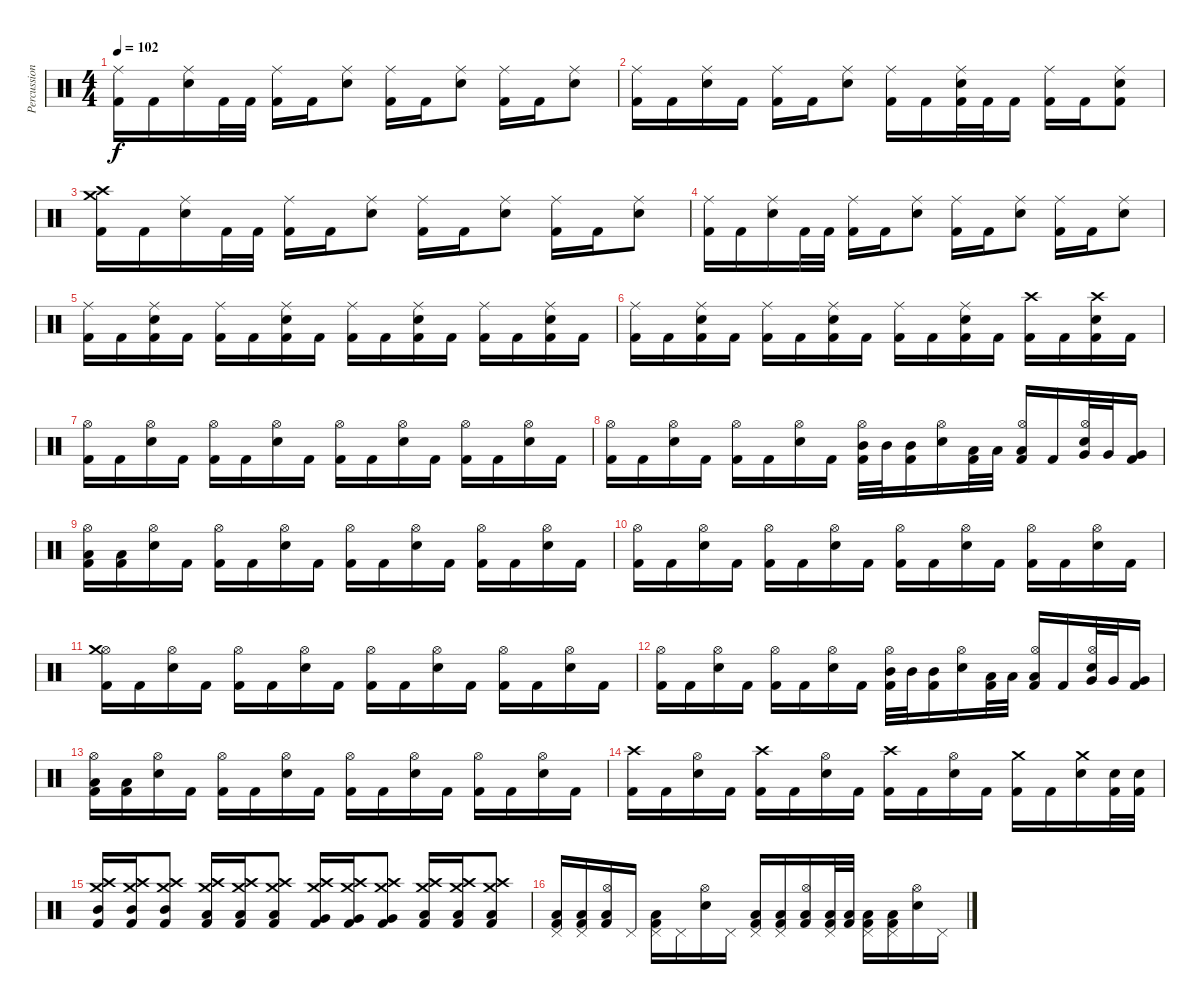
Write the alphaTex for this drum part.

\track ("Percussion" "Percussion") {instrument percussion}
\staff {score}
\articulation defaults
\ts (4 4)
\tempo 102
\clef neutral
\ks c
("Ride (middle)" "Kick (hit) 2").16{dy f} "Kick (hit) 2".16 ("Ride (middle)" "Electric Snare (hit)").16 "Kick (hit) 2".32 "Kick (hit) 2".32 ("Ride (middle)" "Kick (hit) 2").16 "Kick (hit) 2".16 ("Ride (middle)" "Electric Snare (hit)").8 ("Ride (middle)" "Kick (hit) 2").16 "Kick (hit) 2".16 ("Ride (middle)" "Electric Snare (hit)").8 ("Ride (middle)" "Kick (hit) 2").16 "Kick (hit) 2".16 ("Ride (middle)" "Electric Snare (hit)").8 |
("Ride (middle)" "Kick (hit) 2").16 "Kick (hit) 2".16 ("Ride (middle)" "Electric Snare (hit)").16 "Kick (hit) 2".16 ("Ride (middle)" "Kick (hit) 2").16 "Kick (hit) 2".16 ("Ride (middle)" "Electric Snare (hit)").8 ("Ride (middle)" "Kick (hit) 2").16 "Kick (hit) 2".16 ("Ride (middle)" "Electric Snare (hit)" "Kick (hit) 2").32 "Kick (hit) 2".32 "Kick (hit) 2".16 ("Ride (middle)" "Kick (hit) 2").16 "Kick (hit) 2".16 ("Ride (middle)" "Electric Snare (hit)" "Kick (hit) 2").8 |
("Crash medium (hit)" "Crash high (hit)" "Kick (hit) 2").16 "Kick (hit) 2".16 ("Ride (middle)" "Electric Snare (hit)").16 "Kick (hit) 2".32 "Kick (hit) 2".32 ("Ride (middle)" "Kick (hit) 2").16 "Kick (hit) 2".16 ("Ride (middle)" "Electric Snare (hit)").8 ("Ride (middle)" "Kick (hit) 2").16 "Kick (hit) 2".16 ("Ride (middle)" "Electric Snare (hit)").8 ("Ride (middle)" "Kick (hit) 2").16 "Kick (hit) 2".16 ("Ride (middle)" "Electric Snare (hit)").8 |
("Ride (middle)" "Kick (hit) 2").16 "Kick (hit) 2".16 ("Ride (middle)" "Electric Snare (hit)").16 "Kick (hit) 2".32 "Kick (hit) 2".32 ("Ride (middle)" "Kick (hit) 2").16 "Kick (hit) 2".16 ("Ride (middle)" "Electric Snare (hit)").8 ("Ride (middle)" "Kick (hit) 2").16 "Kick (hit) 2".16 ("Ride (middle)" "Electric Snare (hit)").8 ("Ride (middle)" "Kick (hit) 2").16 "Kick (hit) 2".16 ("Ride (middle)" "Electric Snare (hit)").8 |
("Ride (middle)" "Kick (hit) 2").16 "Kick (hit) 2".16 ("Ride (middle)" "Electric Snare (hit)" "Kick (hit) 2").16 "Kick (hit) 2".16 ("Ride (middle)" "Kick (hit) 2").16 "Kick (hit) 2".16 ("Ride (middle)" "Electric Snare (hit)" "Kick (hit) 2").16 "Kick (hit) 2".16 ("Ride (middle)" "Kick (hit) 2").16 "Kick (hit) 2".16 ("Ride (middle)" "Electric Snare (hit)" "Kick (hit) 2").16 "Kick (hit) 2".16 ("Ride (middle)" "Kick (hit) 2").16 "Kick (hit) 2".16 ("Ride (middle)" "Electric Snare (hit)" "Kick (hit) 2").16 "Kick (hit) 2".16 |
("Ride (middle)" "Kick (hit) 2").16 "Kick (hit) 2".16 ("Ride (middle)" "Electric Snare (hit)" "Kick (hit) 2").16 "Kick (hit) 2".16 ("Ride (middle)" "Kick (hit) 2").16 "Kick (hit) 2".16 ("Ride (middle)" "Electric Snare (hit)" "Kick (hit) 2").16 "Kick (hit) 2".16 ("Ride (middle)" "Kick (hit) 2").16 "Kick (hit) 2".16 ("Ride (middle)" "Electric Snare (hit)" "Kick (hit) 2").16 "Kick (hit) 2".16 ("Crash high (hit)" "Kick (hit) 2").16 "Kick (hit) 2".16 ("Crash high (hit)" "Electric Snare (hit)" "Kick (hit) 2").16 "Kick (hit) 2".16 |
("Hi-Hat (open)" "Kick (hit) 2").16 "Kick (hit) 2".16 ("Hi-Hat (open)" "Electric Snare (hit)").16 "Kick (hit) 2".16 ("Hi-Hat (open)" "Kick (hit) 2").16 "Kick (hit) 2".16 ("Hi-Hat (open)" "Electric Snare (hit)").16 "Kick (hit) 2".16 ("Hi-Hat (open)" "Kick (hit) 2").16 "Kick (hit) 2".16 ("Hi-Hat (open)" "Electric Snare (hit)").16 "Kick (hit) 2".16 ("Hi-Hat (open)" "Kick (hit) 2").16 "Kick (hit) 2".16 ("Hi-Hat (open)" "Electric Snare (hit)").16 "Kick (hit) 2".16 |
("Hi-Hat (open)" "Kick (hit) 2").16 "Kick (hit) 2".16 ("Hi-Hat (open)" "Electric Snare (hit)").16 "Kick (hit) 2".16 ("Hi-Hat (open)" "Kick (hit) 2").16 "Kick (hit) 2".16 ("Hi-Hat (open)" "Electric Snare (hit)").16 "Kick (hit) 2".16 ("Hi-Hat (open)" "Mid Tom (hit)" "Kick (hit) 2").32 "Mid Tom (hit)".32 ("Mid Tom (hit)" "Kick (hit) 2").16 ("Hi-Hat (open)" "Electric Snare (hit)").16 ("Low Tom (hit)" "Kick (hit) 2").32 "Low Tom (hit)".32 ("Hi-Hat (open)" "Low Tom (hit)" "Kick (hit) 2").16 "Kick (hit) 2".16 ("Hi-Hat (open)" "Very Low Tom (hit)" "Electric Snare (hit)").32 "Very Low Tom (hit)".32 ("Very Low Tom (hit)" "Kick (hit) 2").16 |
("Hi-Hat (open)" "Low Floor Tom (hit)" "Kick (hit) 2").16 ("Low Floor Tom (hit)" "Kick (hit) 2").16 ("Hi-Hat (open)" "Electric Snare (hit)").16 "Kick (hit) 2".16 ("Hi-Hat (open)" "Kick (hit) 2").16 "Kick (hit) 2".16 ("Hi-Hat (open)" "Electric Snare (hit)").16 "Kick (hit) 2".16 ("Hi-Hat (open)" "Kick (hit) 2").16 "Kick (hit) 2".16 ("Hi-Hat (open)" "Electric Snare (hit)").16 "Kick (hit) 2".16 ("Hi-Hat (open)" "Kick (hit) 2").16 "Kick (hit) 2".16 ("Hi-Hat (open)" "Electric Snare (hit)").16 "Kick (hit) 2".16 |
("Hi-Hat (open)" "Kick (hit) 2").16 "Kick (hit) 2".16 ("Hi-Hat (open)" "Electric Snare (hit)").16 "Kick (hit) 2".16 ("Hi-Hat (open)" "Kick (hit) 2").16 "Kick (hit) 2".16 ("Hi-Hat (open)" "Electric Snare (hit)").16 "Kick (hit) 2".16 ("Hi-Hat (open)" "Kick (hit) 2").16 "Kick (hit) 2".16 ("Hi-Hat (open)" "Electric Snare (hit)").16 "Kick (hit) 2".16 ("Hi-Hat (open)" "Kick (hit) 2").16 "Kick (hit) 2".16 ("Hi-Hat (open)" "Electric Snare (hit)").16 "Kick (hit) 2".16 |
("Hi-Hat (open)" "Crash medium (hit)" "Kick (hit) 2").16 "Kick (hit) 2".16 ("Hi-Hat (open)" "Electric Snare (hit)").16 "Kick (hit) 2".16 ("Hi-Hat (open)" "Kick (hit) 2").16 "Kick (hit) 2".16 ("Hi-Hat (open)" "Electric Snare (hit)").16 "Kick (hit) 2".16 ("Hi-Hat (open)" "Kick (hit) 2").16 "Kick (hit) 2".16 ("Hi-Hat (open)" "Electric Snare (hit)").16 "Kick (hit) 2".16 ("Hi-Hat (open)" "Kick (hit) 2").16 "Kick (hit) 2".16 ("Hi-Hat (open)" "Electric Snare (hit)").16 "Kick (hit) 2".16 |
("Hi-Hat (open)" "Kick (hit) 2").16 "Kick (hit) 2".16 ("Hi-Hat (open)" "Electric Snare (hit)").16 "Kick (hit) 2".16 ("Hi-Hat (open)" "Kick (hit) 2").16 "Kick (hit) 2".16 ("Hi-Hat (open)" "Electric Snare (hit)").16 "Kick (hit) 2".16 ("Hi-Hat (open)" "Mid Tom (hit)" "Kick (hit) 2").32 "Mid Tom (hit)".32 ("Mid Tom (hit)" "Kick (hit) 2").16 ("Hi-Hat (open)" "Electric Snare (hit)").16 ("Low Tom (hit)" "Kick (hit) 2").32 "Low Tom (hit)".32 ("Hi-Hat (open)" "Low Tom (hit)" "Kick (hit) 2").16 "Kick (hit) 2".16 ("Hi-Hat (open)" "Very Low Tom (hit)" "Electric Snare (hit)").32 "Very Low Tom (hit)".32 ("Very Low Tom (hit)" "Kick (hit) 2").16 |
("Hi-Hat (open)" "Low Floor Tom (hit)" "Kick (hit) 2").16 ("Low Floor Tom (hit)" "Kick (hit) 2").16 ("Hi-Hat (open)" "Electric Snare (hit)").16 "Kick (hit) 2".16 ("Hi-Hat (open)" "Kick (hit) 2").16 "Kick (hit) 2".16 ("Hi-Hat (open)" "Electric Snare (hit)").16 "Kick (hit) 2".16 ("Hi-Hat (open)" "Kick (hit) 2").16 "Kick (hit) 2".16 ("Hi-Hat (open)" "Electric Snare (hit)").16 "Kick (hit) 2".16 ("Hi-Hat (open)" "Kick (hit) 2").16 "Kick (hit) 2".16 ("Hi-Hat (open)" "Electric Snare (hit)").16 "Kick (hit) 2".16 |
("Crash high (hit)" "Kick (hit) 2").16 "Kick (hit) 2".16 ("Hi-Hat (open)" "Electric Snare (hit)").16 "Kick (hit) 2".16 ("Crash high (hit)" "Kick (hit) 2").16 "Kick (hit) 2".16 ("Hi-Hat (open)" "Electric Snare (hit)").16 "Kick (hit) 2".16 ("Crash high (hit)" "Kick (hit) 2").16 "Kick (hit) 2".16 ("Hi-Hat (open)" "Electric Snare (hit)").16 "Kick (hit) 2".16 ("Crash medium (hit)" "Kick (hit) 2").16 "Kick (hit) 2".16 ("Crash medium (hit)" "Electric Snare (hit)").16 ("Electric Snare (hit)" "Kick (hit) 2").32 ("Electric Snare (hit)" "Kick (hit) 2").32 |
("Crash high (hit)" "Crash medium (hit)" "Mid Tom (hit)" "Kick (hit) 2").16 ("Crash high (hit)" "Crash medium (hit)" "Mid Tom (hit)" "Kick (hit) 2").16 ("Crash high (hit)" "Crash medium (hit)" "Mid Tom (hit)" "Kick (hit) 2").8 ("Crash high (hit)" "Crash medium (hit)" "Low Tom (hit)" "Kick (hit) 2").16 ("Crash high (hit)" "Crash medium (hit)" "Low Tom (hit)" "Kick (hit) 2").16 ("Crash high (hit)" "Crash medium (hit)" "Low Tom (hit)" "Kick (hit) 2").8 ("Crash high (hit)" "Crash medium (hit)" "Very Low Tom (hit)" "Kick (hit) 2").16 ("Crash high (hit)" "Crash medium (hit)" "Very Low Tom (hit)" "Kick (hit) 2").16 ("Crash high (hit)" "Crash medium (hit)" "Very Low Tom (hit)" "Kick (hit) 2").8 ("Crash high (hit)" "Crash medium (hit)" "Low Floor Tom (hit)" "Kick (hit) 2").16 ("Crash high (hit)" "Crash medium (hit)" "Low Floor Tom (hit)" "Kick (hit) 2").16 ("Crash high (hit)" "Crash medium (hit)" "Low Floor Tom (hit)" "Kick (hit) 2").8 |
("Pedal Hi-Hat (hit)" "Low Floor Tom (hit)" "Kick (hit) 2").16 ("Pedal Hi-Hat (hit)" "Low Floor Tom (hit)" "Kick (hit) 2").16 ("Hi-Hat (open)" "Low Floor Tom (hit)" "Kick (hit) 2").16 "Pedal Hi-Hat (hit)".16 ("Pedal Hi-Hat (hit)" "Low Floor Tom (hit)" "Kick (hit) 2").16 "Pedal Hi-Hat (hit)".16 ("Hi-Hat (open)" "Electric Snare (hit)").16 "Pedal Hi-Hat (hit)".16 ("Pedal Hi-Hat (hit)" "Low Floor Tom (hit)" "Kick (hit) 2").16 ("Pedal Hi-Hat (hit)" "Low Floor Tom (hit)" "Kick (hit) 2").16 ("Hi-Hat (open)" "Low Floor Tom (hit)" "Kick (hit) 2").16 ("Pedal Hi-Hat (hit)" "Low Floor Tom (hit)" "Kick (hit) 2").32 ("Low Floor Tom (hit)" "Kick (hit) 2").32 ("Pedal Hi-Hat (hit)" "Low Floor Tom (hit)" "Kick (hit) 2").16 ("Pedal Hi-Hat (hit)" "Low Floor Tom (hit)" "Kick (hit) 2").16 ("Hi-Hat (open)" "Electric Snare (hit)").16 "Pedal Hi-Hat (hit)".16
